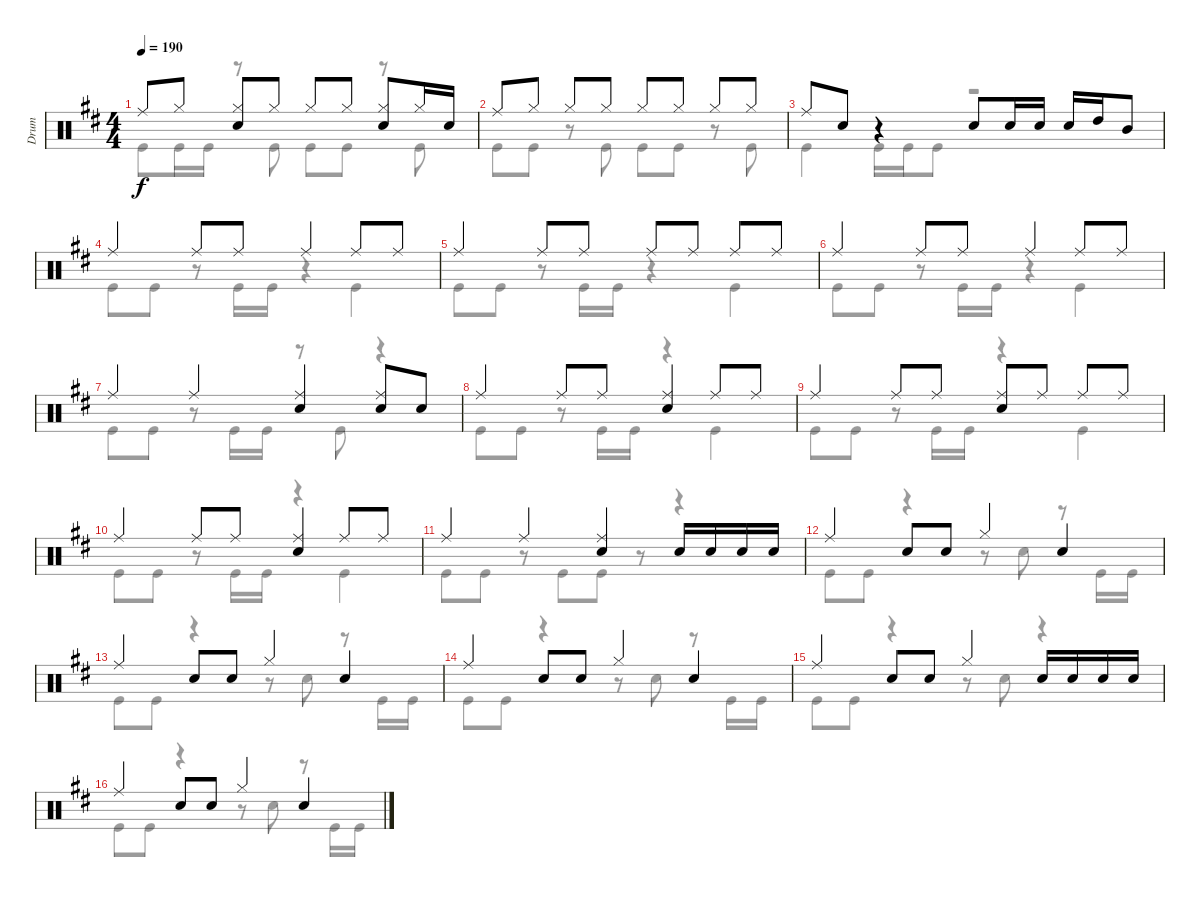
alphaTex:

\track ("Drum" "Drum") {instrument percussion}
\staff {score}
\articulation defaults
\voice
\ts (4 4)
\tempo 190
\clef neutral
\ks d "Ride (middle)".8{dy f} "Hi-Hat (closed)".8
("Hi-Hat (closed)" "Snare (hit) 2").8 "Hi-Hat (closed)".8 "Hi-Hat (closed)".8 "Hi-Hat (closed)".8 ("Hi-Hat (closed)" "Snare (hit) 2").8 "Hi-Hat (closed)".16 "Snare (hit) 2".16 |
"Ride (middle)".8 "Hi-Hat (closed)".8 "Hi-Hat (closed)".8 "Hi-Hat (closed)".8 "Hi-Hat (closed)".8 "Hi-Hat (closed)".8 "Hi-Hat (closed)".8 "Hi-Hat (closed)".8 |
"Ride (middle)".8 "Snare (hit) 2".8 r.4 "Snare (hit) 2".8 "Snare (hit) 2".16 "Snare (hit) 2".16 "Snare (hit) 2".16 "High Tom (hit)".16 "Mid Tom (hit)".8 |
"Ride (middle)".4 "Ride (middle)".8 "Ride (middle)".8 "Ride (middle)".4 "Ride (middle)".8 "Ride (middle)".8 |
"Ride (middle)".4 "Ride (middle)".8 "Ride (middle)".8 "Ride (middle)".8 "Ride (middle)".8 "Ride (middle)".8 "Ride (middle)".8 |
"Ride (middle)".4 "Ride (middle)".8 "Ride (middle)".8 "Ride (middle)".4 "Ride (middle)".8 "Ride (middle)".8 |
"Ride (middle)".4 "Ride (middle)".4 ("Ride (middle)" "Snare (hit) 2").4 ("Ride (middle)" "Snare (hit) 2").8 "Snare (hit) 2".8 |
"Ride (middle)".4 "Ride (middle)".8 "Ride (middle)".8 ("Ride (middle)" "Snare (hit) 2").4 "Ride (middle)".8 "Ride (middle)".8 |
"Ride (middle)".4 "Ride (middle)".8 "Ride (middle)".8 ("Ride (middle)" "Snare (hit) 2").8 "Ride (middle)".8 "Ride (middle)".8 "Ride (middle)".8 |
"Ride (middle)".4 "Ride (middle)".8 "Ride (middle)".8 ("Ride (middle)" "Snare (hit) 2").4 "Ride (middle)".8 "Ride (middle)".8 |
"Ride (middle)".4 "Ride (middle)".4 ("Ride (middle)" "Snare (hit) 2").4 "Snare (hit) 2".16 "Snare (hit) 2".16 "Snare (hit) 2".16 "Snare (hit) 2".16 |
"Ride (middle)".4 "Snare (hit) 2".8 "Snare (hit) 2".8 "Hi-Hat (closed)".4 "Snare (hit) 2".4 |
"Ride (middle)".4 "Snare (hit) 2".8 "Snare (hit) 2".8 "Hi-Hat (closed)".4 "Snare (hit) 2".4 |
"Ride (middle)".4 "Snare (hit) 2".8 "Snare (hit) 2".8 "Hi-Hat (closed)".4 "Snare (hit) 2".4 |
"Ride (middle)".4 "Snare (hit) 2".8 "Snare (hit) 2".8 "Hi-Hat (closed)".4 "Snare (hit) 2".16 "Snare (hit) 2".16 "Snare (hit) 2".16 "Snare (hit) 2".16 |
"Ride (middle)".4 "Snare (hit) 2".8 "Snare (hit) 2".8 "Hi-Hat (closed)".4 "Snare (hit) 2".4
\voice
\clef neutral
\ottava regular
\simile none
\ks d "Kick (hit)".8{dy f} "Kick (hit)".16 "Kick (hit)".16
r.8 "Kick (hit)".8 "Kick (hit)".8 "Kick (hit)".8 r.8 "Kick (hit)".8 |
"Kick (hit)".8 "Kick (hit)".8 r.8 "Kick (hit)".8 "Kick (hit)".8 "Kick (hit)".8 r.8 "Kick (hit)".8 |
"Kick (hit)".4 "Kick (hit)".16 "Kick (hit)".16 "Kick (hit)".8 r.2 |
"Kick (hit)".8 "Kick (hit)".8 r.8 "Kick (hit)".16 "Kick (hit)".16 r.4 "Kick (hit)".4 |
"Kick (hit)".8 "Kick (hit)".8 r.8 "Kick (hit)".16 "Kick (hit)".16 r.4 "Kick (hit)".4 |
"Kick (hit)".8 "Kick (hit)".8 r.8 "Kick (hit)".16 "Kick (hit)".16 r.4 "Kick (hit)".4 |
"Kick (hit)".8 "Kick (hit)".8 r.8 "Kick (hit)".16 "Kick (hit)".16 r.8 "Kick (hit)".8 r.4 |
"Kick (hit)".8 "Kick (hit)".8 r.8 "Kick (hit)".16 "Kick (hit)".16 r.4 "Kick (hit)".4 |
"Kick (hit)".8 "Kick (hit)".8 r.8 "Kick (hit)".16 "Kick (hit)".16 r.4 "Kick (hit)".4 |
"Kick (hit)".8 "Kick (hit)".8 r.8 "Kick (hit)".16 "Kick (hit)".16 r.4 "Kick (hit)".4 |
"Kick (hit)".8 "Kick (hit)".8 r.8 "Kick (hit)".8{beam merge} "Kick (hit)".8 r.8 r.4 |
"Kick (hit)".8 "Kick (hit)".8 r.4 r.8 "Snare (hit) 2".8 r.8 "Kick (hit)".16 "Kick (hit)".16 |
"Kick (hit)".8 "Kick (hit)".8 r.4 r.8 "Snare (hit) 2".8 r.8 "Kick (hit)".16 "Kick (hit)".16 |
"Kick (hit)".8 "Kick (hit)".8 r.4 r.8 "Snare (hit) 2".8 r.8 "Kick (hit)".16 "Kick (hit)".16 |
"Kick (hit)".8 "Kick (hit)".8 r.4 r.8 "Snare (hit) 2".8 r.4 |
"Kick (hit)".8 "Kick (hit)".8 r.4 r.8 "Snare (hit) 2".8 r.8 "Kick (hit)".16 "Kick (hit)".16
